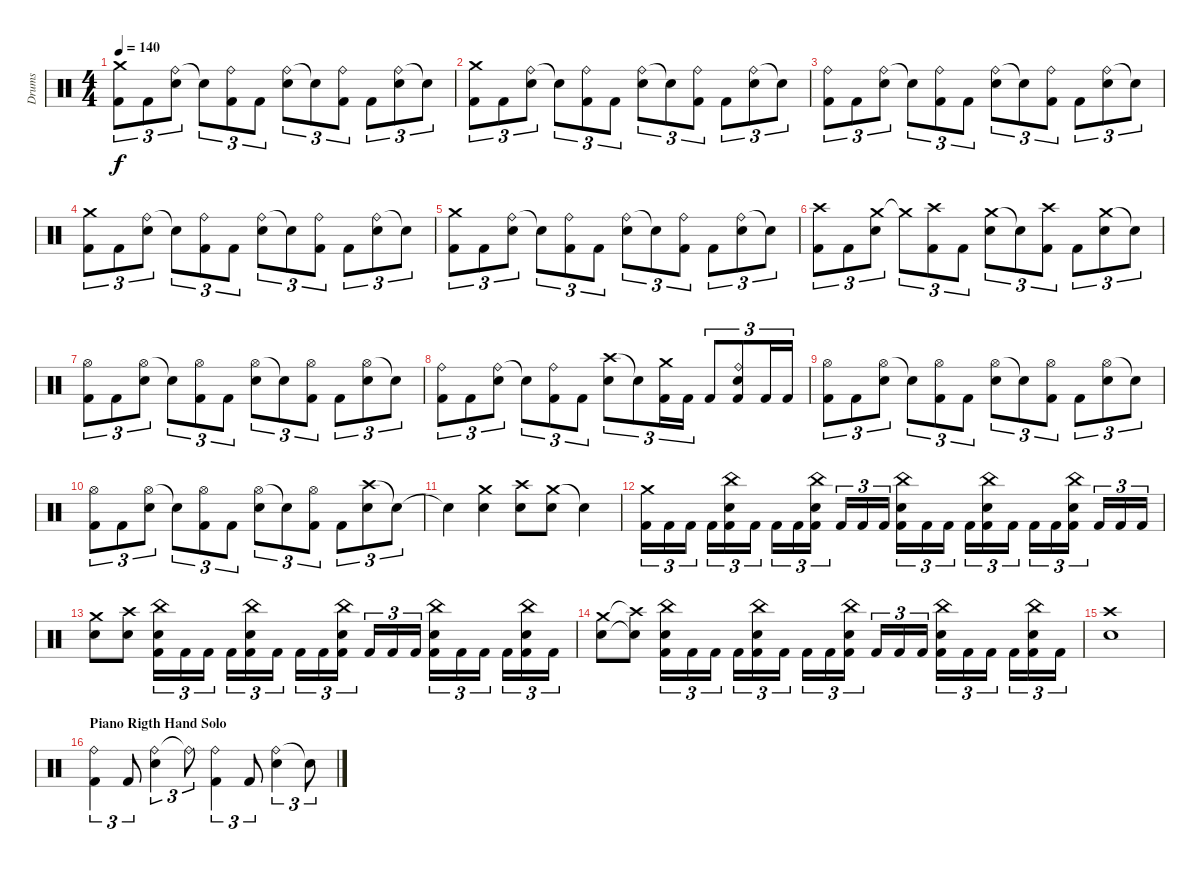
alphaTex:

\track ("Drums" "Drums") {instrument percussion}
\staff {score}
\articulation defaults
\ts (4 4)
\tempo 140
\clef neutral
\ks c
("Crash medium (hit)" "Kick (hit) 2").8{tu (3 2) dy f} "Kick (hit) 2".8{tu (3 2)} ("Ride (bell)" "Electric Snare (hit)").8{tu (3 2)} "Snare (hit)"{t}.8{tu (3 2)} ("Ride (bell)" "Kick (hit) 2").8{tu (3 2)} "Kick (hit) 2".8{tu (3 2)} ("Ride (bell)" "Electric Snare (hit)").8{tu (3 2)} "Snare (hit)"{t}.8{tu (3 2)} ("Ride (bell)" "Kick (hit) 2").8{tu (3 2)} "Kick (hit) 2".8{tu (3 2)} ("Ride (bell)" "Electric Snare (hit)").8{tu (3 2)} "Snare (hit)"{t}.8{tu (3 2)} |
("Crash medium (hit)" "Kick (hit) 2").8{tu (3 2)} "Kick (hit) 2".8{tu (3 2)} ("Ride (bell)" "Electric Snare (hit)").8{tu (3 2)} "Snare (hit)"{t}.8{tu (3 2)} ("Ride (bell)" "Kick (hit) 2").8{tu (3 2)} "Kick (hit) 2".8{tu (3 2)} ("Ride (bell)" "Electric Snare (hit)").8{tu (3 2)} "Snare (hit)"{t}.8{tu (3 2)} ("Ride (bell)" "Kick (hit) 2").8{tu (3 2)} "Kick (hit) 2".8{tu (3 2)} ("Ride (bell)" "Electric Snare (hit)").8{tu (3 2)} "Snare (hit)"{t}.8{tu (3 2)} |
("Ride (bell)" "Kick (hit) 2").8{tu (3 2)} "Kick (hit) 2".8{tu (3 2)} ("Ride (bell)" "Electric Snare (hit)").8{tu (3 2)} "Snare (hit)"{t}.8{tu (3 2)} ("Ride (bell)" "Kick (hit) 2").8{tu (3 2)} "Kick (hit) 2".8{tu (3 2)} ("Ride (bell)" "Electric Snare (hit)").8{tu (3 2)} "Snare (hit)"{t}.8{tu (3 2)} ("Ride (bell)" "Kick (hit) 2").8{tu (3 2)} "Kick (hit) 2".8{tu (3 2)} ("Ride (bell)" "Electric Snare (hit)").8{tu (3 2)} "Snare (hit)"{t}.8{tu (3 2)} |
("Crash medium (hit)" "Kick (hit) 2").8{tu (3 2)} "Kick (hit) 2".8{tu (3 2)} ("Ride (bell)" "Electric Snare (hit)").8{tu (3 2)} "Snare (hit)"{t}.8{tu (3 2)} ("Ride (bell)" "Kick (hit) 2").8{tu (3 2)} "Kick (hit) 2".8{tu (3 2)} ("Ride (bell)" "Electric Snare (hit)").8{tu (3 2)} "Snare (hit)"{t}.8{tu (3 2)} ("Ride (bell)" "Kick (hit) 2").8{tu (3 2)} "Kick (hit) 2".8{tu (3 2)} ("Ride (bell)" "Electric Snare (hit)").8{tu (3 2)} "Snare (hit)"{t}.8{tu (3 2)} |
("Crash medium (hit)" "Kick (hit) 2").8{tu (3 2)} "Kick (hit) 2".8{tu (3 2)} ("Ride (bell)" "Electric Snare (hit)").8{tu (3 2)} "Snare (hit)"{t}.8{tu (3 2)} ("Ride (bell)" "Kick (hit) 2").8{tu (3 2)} "Kick (hit) 2".8{tu (3 2)} ("Ride (bell)" "Electric Snare (hit)").8{tu (3 2)} "Snare (hit)"{t}.8{tu (3 2)} ("Ride (bell)" "Kick (hit) 2").8{tu (3 2)} "Kick (hit) 2".8{tu (3 2)} ("Ride (bell)" "Electric Snare (hit)").8{tu (3 2)} "Snare (hit)"{t}.8{tu (3 2)} |
("Crash high (hit)" "Kick (hit) 2").8{tu (3 2)} "Kick (hit) 2".8{tu (3 2)} ("Crash medium (hit)" "Electric Snare (hit)").8{tu (3 2)} "Crash medium (hit)"{t}.8{tu (3 2)} ("Crash high (hit)" "Kick (hit) 2").8{tu (3 2)} "Kick (hit) 2".8{tu (3 2)} ("Crash medium (hit)" "Electric Snare (hit)").8{tu (3 2)} "Snare (hit)"{t}.8{tu (3 2)} ("Crash high (hit)" "Kick (hit) 2").8{tu (3 2)} "Kick (hit) 2".8{tu (3 2)} ("Crash medium (hit)" "Electric Snare (hit)").8{tu (3 2)} "Snare (hit)"{t}.8{tu (3 2)} |
("Hi-Hat (open)" "Kick (hit) 2").8{tu (3 2)} "Kick (hit) 2".8{tu (3 2)} ("Hi-Hat (open)" "Electric Snare (hit)").8{tu (3 2)} "Snare (hit)"{t}.8{tu (3 2)} ("Hi-Hat (open)" "Kick (hit) 2").8{tu (3 2)} "Kick (hit) 2".8{tu (3 2)} ("Hi-Hat (open)" "Electric Snare (hit)").8{tu (3 2)} "Snare (hit)"{t}.8{tu (3 2)} ("Hi-Hat (open)" "Kick (hit) 2").8{tu (3 2)} "Kick (hit) 2".8{tu (3 2)} ("Hi-Hat (open)" "Electric Snare (hit)").8{tu (3 2)} "Snare (hit)"{t}.8{tu (3 2)} |
("Ride (bell)" "Kick (hit) 2").8{tu (3 2)} "Kick (hit) 2".8{tu (3 2)} ("Ride (bell)" "Electric Snare (hit)").8{tu (3 2)} "Snare (hit)"{t}.8{tu (3 2)} ("Ride (bell)" "Kick (hit) 2").8{tu (3 2)} "Kick (hit) 2".8{tu (3 2)} ("Crash high (hit)" "Electric Snare (hit)").8{tu (3 2)} "Snare (hit)"{t}.8{tu (3 2)} ("Crash medium (hit)" "Kick (hit) 2").16{tu (3 2)} "Kick (hit) 2".16{tu (3 2)} "Kick (hit) 2".8{tu (3 2)} ("Ride (bell)" "Electric Snare (hit)" "Kick (hit) 2").8{tu (3 2)} "Kick (hit) 2".16{tu (3 2)} "Kick (hit) 2".16{tu (3 2)} |
("Hi-Hat (open)" "Kick (hit) 2").8{tu (3 2)} "Kick (hit) 2".8{tu (3 2)} ("Hi-Hat (open)" "Electric Snare (hit)").8{tu (3 2)} "Snare (hit)"{t}.8{tu (3 2)} ("Hi-Hat (open)" "Kick (hit) 2").8{tu (3 2)} "Kick (hit) 2".8{tu (3 2)} ("Hi-Hat (open)" "Electric Snare (hit)").8{tu (3 2)} "Snare (hit)"{t}.8{tu (3 2)} ("Hi-Hat (open)" "Kick (hit) 2").8{tu (3 2)} "Kick (hit) 2".8{tu (3 2)} ("Hi-Hat (open)" "Electric Snare (hit)").8{tu (3 2)} "Snare (hit)"{t}.8{tu (3 2)} |
("Hi-Hat (open)" "Kick (hit) 2").8{tu (3 2)} "Kick (hit) 2".8{tu (3 2)} ("Hi-Hat (open)" "Electric Snare (hit)").8{tu (3 2)} "Snare (hit)"{t}.8{tu (3 2)} ("Hi-Hat (open)" "Kick (hit) 2").8{tu (3 2)} "Kick (hit) 2".8{tu (3 2)} ("Hi-Hat (open)" "Electric Snare (hit)").8{tu (3 2)} "Snare (hit)"{t}.8{tu (3 2)} ("Hi-Hat (open)" "Kick (hit) 2").8{tu (3 2)} "Kick (hit) 2".8{tu (3 2)} ("Crash high (hit)" "Electric Snare (hit)").8{tu (3 2)} "Snare (hit)"{t}.8{tu (3 2)} |
"Snare (hit)"{t}.4 ("Crash medium (hit)" "Electric Snare (hit)").4 ("Crash high (hit)" "Electric Snare (hit)").8 ("Crash medium (hit)" "Electric Snare (hit)").8 "Snare (hit)"{t}.4 |
("Crash medium (hit)" "Kick (hit) 2").16{tu (3 2)} "Kick (hit) 2".16{tu (3 2)} "Kick (hit) 2".16{tu (3 2)} "Kick (hit) 2".16{tu (3 2)} ("China (hit)" "Electric Snare (hit)" "Kick (hit) 2").16{tu (3 2)} "Kick (hit) 2".16{tu (3 2)} "Kick (hit) 2".16{tu (3 2)} "Kick (hit) 2".16{tu (3 2)} ("China (hit)" "Electric Snare (hit)" "Kick (hit) 2").16{tu (3 2)} "Kick (hit) 2".16{tu (3 2)} "Kick (hit) 2".16{tu (3 2)} "Kick (hit) 2".16{tu (3 2)} ("China (hit)" "Electric Snare (hit)" "Kick (hit) 2").16{tu (3 2)} "Kick (hit) 2".16{tu (3 2)} "Kick (hit) 2".16{tu (3 2)} "Kick (hit) 2".16{tu (3 2)} ("China (hit)" "Electric Snare (hit)" "Kick (hit) 2").16{tu (3 2)} "Kick (hit) 2".16{tu (3 2)} "Kick (hit) 2".16{tu (3 2)} "Kick (hit) 2".16{tu (3 2)} ("China (hit)" "Electric Snare (hit)" "Kick (hit) 2").16{tu (3 2)} "Kick (hit) 2".16{tu (3 2)} "Kick (hit) 2".16{tu (3 2)} "Kick (hit) 2".16{tu (3 2)} |
("Crash medium (hit)" "Electric Snare (hit)").8 ("Crash high (hit)" "Electric Snare (hit)").8 ("China (hit)" "Electric Snare (hit)" "Kick (hit) 2").16{tu (3 2)} "Kick (hit) 2".16{tu (3 2)} "Kick (hit) 2".16{tu (3 2)} "Kick (hit) 2".16{tu (3 2)} ("China (hit)" "Electric Snare (hit)" "Kick (hit) 2").16{tu (3 2)} "Kick (hit) 2".16{tu (3 2)} "Kick (hit) 2".16{tu (3 2)} "Kick (hit) 2".16{tu (3 2)} ("China (hit)" "Electric Snare (hit)" "Kick (hit) 2").16{tu (3 2)} "Kick (hit) 2".16{tu (3 2)} "Kick (hit) 2".16{tu (3 2)} "Kick (hit) 2".16{tu (3 2)} ("China (hit)" "Electric Snare (hit)" "Kick (hit) 2").16{tu (3 2)} "Kick (hit) 2".16{tu (3 2)} "Kick (hit) 2".16{tu (3 2)} "Kick (hit) 2".16{tu (3 2)} ("China (hit)" "Electric Snare (hit)" "Kick (hit) 2").16{tu (3 2)} "Kick (hit) 2".16{tu (3 2)} |
("Crash medium (hit)" "Electric Snare (hit)").8 ("Crash high (hit)"{t} "Electric Snare (hit)"{t}).8 ("China (hit)" "Electric Snare (hit)" "Kick (hit) 2").16{tu (3 2)} "Kick (hit) 2".16{tu (3 2)} "Kick (hit) 2".16{tu (3 2)} "Kick (hit) 2".16{tu (3 2)} ("China (hit)" "Electric Snare (hit)" "Kick (hit) 2").16{tu (3 2)} "Kick (hit) 2".16{tu (3 2)} "Kick (hit) 2".16{tu (3 2)} "Kick (hit) 2".16{tu (3 2)} ("China (hit)" "Electric Snare (hit)" "Kick (hit) 2").16{tu (3 2)} "Kick (hit) 2".16{tu (3 2)} "Kick (hit) 2".16{tu (3 2)} "Kick (hit) 2".16{tu (3 2)} ("China (hit)" "Electric Snare (hit)" "Kick (hit) 2").16{tu (3 2)} "Kick (hit) 2".16{tu (3 2)} "Kick (hit) 2".16{tu (3 2)} "Kick (hit) 2".16{tu (3 2)} ("China (hit)" "Electric Snare (hit)" "Kick (hit) 2").16{tu (3 2)} "Kick (hit) 2".16{tu (3 2)} |
("Crash high (hit)" "Electric Snare (hit)").1 |
\section ("" "Piano Rigth Hand Solo")
("Ride (bell)" "Kick (hit) 2").4{tu (3 2)} "Kick (hit) 2".8{tu (3 2)} ("Ride (bell)" "Electric Snare (hit)").4{tu (3 2)} "Ride (bell)"{t}.8{tu (3 2)} ("Ride (bell)" "Kick (hit) 2").4{tu (3 2)} "Kick (hit) 2".8{tu (3 2)} ("Ride (bell)" "Electric Snare (hit)").4{tu (3 2)} "Snare (hit)"{t}.8{tu (3 2)}
